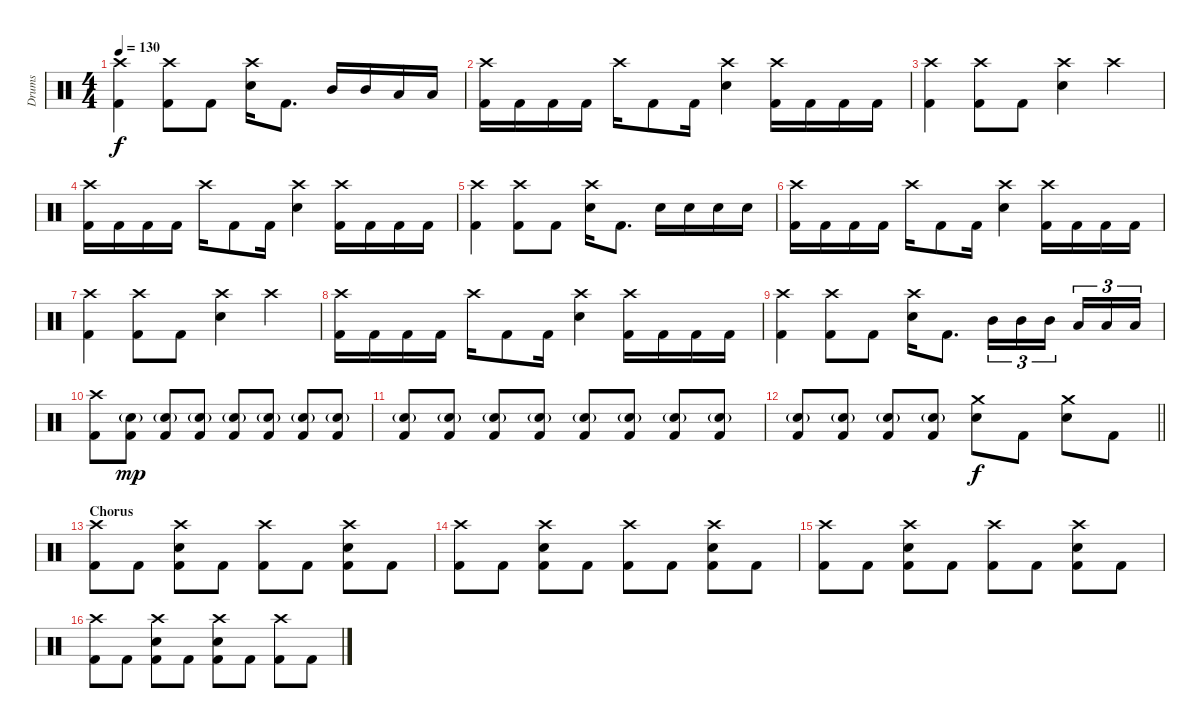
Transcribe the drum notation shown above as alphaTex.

\track ("Drums" "Drums") {instrument percussion}
\staff {score}
\articulation defaults
\ts (4 4)
\tempo 130
\clef neutral
\ks c
("Crash high (hit)" "Kick (hit) 2").4{dy f} ("Crash high (hit)" "Kick (hit) 2").8 "Kick (hit) 2".8 ("Crash high (hit)" "Electric Snare (hit)").16 "Kick (hit) 2".8{d} "Mid Tom (hit)".16 "Mid Tom (hit)".16 "Low Tom (hit)".16 "Low Tom (hit)".16 |
("Crash high (hit)" "Kick (hit) 2").16 "Kick (hit) 2".16 "Kick (hit) 2".16 "Kick (hit) 2".16 "Crash high (hit)".16 "Kick (hit) 2".8 "Kick (hit) 2".16 ("Crash high (hit)" "Electric Snare (hit)").4 ("Crash high (hit)" "Kick (hit) 2").16 "Kick (hit) 2".16 "Kick (hit) 2".16 "Kick (hit) 2".16 |
("Crash high (hit)" "Kick (hit) 2").4 ("Crash high (hit)" "Kick (hit) 2").8 "Kick (hit) 2".8 ("Crash high (hit)" "Electric Snare (hit)").4 "Crash high (hit)".4 |
("Crash high (hit)" "Kick (hit) 2").16 "Kick (hit) 2".16 "Kick (hit) 2".16 "Kick (hit) 2".16 "Crash high (hit)".16 "Kick (hit) 2".8 "Kick (hit) 2".16 ("Crash high (hit)" "Electric Snare (hit)").4 ("Crash high (hit)" "Kick (hit) 2").16 "Kick (hit) 2".16 "Kick (hit) 2".16 "Kick (hit) 2".16 |
("Crash high (hit)" "Kick (hit) 2").4 ("Crash high (hit)" "Kick (hit) 2").8 "Kick (hit) 2".8 ("Crash high (hit)" "Electric Snare (hit)").16 "Kick (hit) 2".8{d} "Electric Snare (hit)".16 "Electric Snare (hit)".16 "Electric Snare (hit)".16 "Electric Snare (hit)".16 |
("Crash high (hit)" "Kick (hit) 2").16 "Kick (hit) 2".16 "Kick (hit) 2".16 "Kick (hit) 2".16 "Crash high (hit)".16 "Kick (hit) 2".8 "Kick (hit) 2".16 ("Crash high (hit)" "Electric Snare (hit)").4 ("Crash high (hit)" "Kick (hit) 2").16 "Kick (hit) 2".16 "Kick (hit) 2".16 "Kick (hit) 2".16 |
("Crash high (hit)" "Kick (hit) 2").4 ("Crash high (hit)" "Kick (hit) 2").8 "Kick (hit) 2".8 ("Crash high (hit)" "Electric Snare (hit)").4 "Crash high (hit)".4 |
("Crash high (hit)" "Kick (hit) 2").16 "Kick (hit) 2".16 "Kick (hit) 2".16 "Kick (hit) 2".16 "Crash high (hit)".16 "Kick (hit) 2".8 "Kick (hit) 2".16 ("Crash high (hit)" "Electric Snare (hit)").4 ("Crash high (hit)" "Kick (hit) 2").16 "Kick (hit) 2".16 "Kick (hit) 2".16 "Kick (hit) 2".16 |
("Crash high (hit)" "Kick (hit) 2").4 ("Crash high (hit)" "Kick (hit) 2").8 "Kick (hit) 2".8 ("Crash high (hit)" "Electric Snare (hit)").16 "Kick (hit) 2".8{d} "Mid Tom (hit)".16{tu (3 2)} "Mid Tom (hit)".16{tu (3 2)} "Mid Tom (hit)".16{tu (3 2) beam splitsecondary} "Low Tom (hit)".16{tu (3 2)} "Low Tom (hit)".16{tu (3 2)} "Low Tom (hit)".16{tu (3 2)} |
("Crash high (hit)" "Kick (hit) 2").8 ("Electric Snare (hit)"{g} "Kick (hit) 2").8{dy mp volume 0} ("Electric Snare (hit)"{g} "Kick (hit) 2").8{volume 14} ("Electric Snare (hit)"{g} "Kick (hit) 2").8 ("Electric Snare (hit)"{g} "Kick (hit) 2").8 ("Electric Snare (hit)"{g} "Kick (hit) 2").8 ("Electric Snare (hit)"{g} "Kick (hit) 2").8 ("Electric Snare (hit)"{g} "Kick (hit) 2").8 |
("Electric Snare (hit)"{g} "Kick (hit) 2").8 ("Electric Snare (hit)"{g} "Kick (hit) 2").8 ("Electric Snare (hit)"{g} "Kick (hit) 2").8 ("Electric Snare (hit)"{g} "Kick (hit) 2").8 ("Electric Snare (hit)"{g} "Kick (hit) 2").8 ("Electric Snare (hit)"{g} "Kick (hit) 2").8 ("Electric Snare (hit)"{g} "Kick (hit) 2").8 ("Electric Snare (hit)"{g} "Kick (hit) 2").8 |
\barLineRight lightlight
("Electric Snare (hit)"{g} "Kick (hit) 2").8 ("Electric Snare (hit)"{g} "Kick (hit) 2").8 ("Electric Snare (hit)"{g} "Kick (hit) 2").8 ("Electric Snare (hit)"{g} "Kick (hit) 2").8 ("Crash medium (hit)" "Electric Snare (hit)").8{dy f} "Kick (hit) 2".8 ("Crash medium (hit)" "Electric Snare (hit)").8 "Kick (hit) 2".8 |
\section ("" "Chorus")
("Crash high (hit)" "Kick (hit) 2").8 "Kick (hit) 2".8 ("Crash high (hit)" "Electric Snare (hit)" "Kick (hit) 2").8 "Kick (hit) 2".8 ("Crash high (hit)" "Kick (hit) 2").8 "Kick (hit) 2".8 ("Crash high (hit)" "Electric Snare (hit)" "Kick (hit) 2").8 "Kick (hit) 2".8 |
("Crash high (hit)" "Kick (hit) 2").8 "Kick (hit) 2".8 ("Crash high (hit)" "Electric Snare (hit)" "Kick (hit) 2").8 "Kick (hit) 2".8 ("Crash high (hit)" "Kick (hit) 2").8 "Kick (hit) 2".8 ("Crash high (hit)" "Electric Snare (hit)" "Kick (hit) 2").8 "Kick (hit) 2".8 |
("Crash high (hit)" "Kick (hit) 2").8 "Kick (hit) 2".8 ("Crash high (hit)" "Electric Snare (hit)" "Kick (hit) 2").8 "Kick (hit) 2".8 ("Crash high (hit)" "Kick (hit) 2").8 "Kick (hit) 2".8 ("Crash high (hit)" "Electric Snare (hit)" "Kick (hit) 2").8 "Kick (hit) 2".8 |
("Crash high (hit)" "Kick (hit) 2").8 "Kick (hit) 2".8 ("Crash high (hit)" "Electric Snare (hit)" "Kick (hit) 2").8 "Kick (hit) 2".8 ("Crash high (hit)" "Electric Snare (hit)" "Kick (hit) 2").8 "Kick (hit) 2".8 ("Crash high (hit)" "Kick (hit) 2").8 "Kick (hit) 2".8
